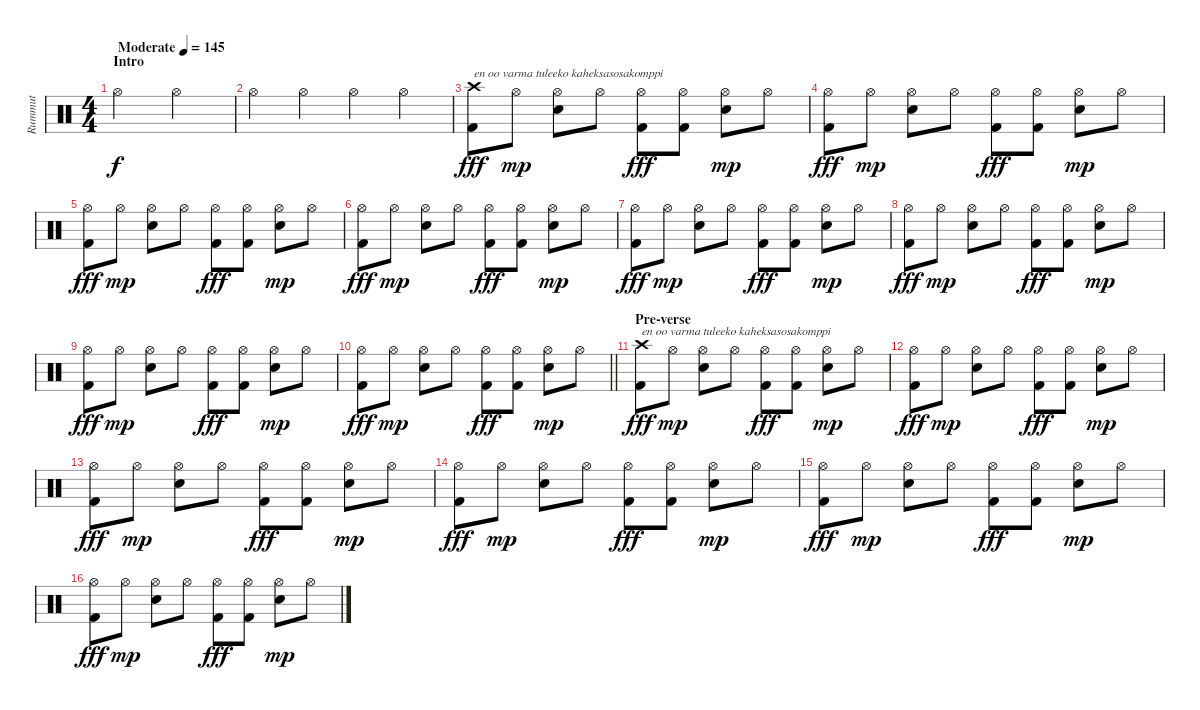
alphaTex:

\track ("Rummut" "Rummut") {instrument percussion}
\staff {score}
\articulation defaults
\ts (4 4)
\section ("" "Intro")
\tempo (145 "Moderate")
\clef neutral
\ks c "Hi-Hat (open)".2{dy f} "Hi-Hat (open)".2
|
"Hi-Hat (open)".4 "Hi-Hat (open)".4 "Hi-Hat (open)".4 "Hi-Hat (open)".4 |
("Crash high (hit)" "Kick (hit) 2").8{txt "en oo varma tuleeko kaheksasosakomppi" dy fff} "Hi-Hat (open)".8{dy mp} ("Hi-Hat (open)" "Snare (hit) 2").8 "Hi-Hat (open)".8 ("Hi-Hat (open)" "Kick (hit) 2").8{dy fff} ("Hi-Hat (open)" "Kick (hit) 2").8 ("Hi-Hat (open)" "Snare (hit) 2").8{dy mp} "Hi-Hat (open)".8 |
("Hi-Hat (open)" "Kick (hit) 2").8{dy fff} "Hi-Hat (open)".8{dy mp} ("Hi-Hat (open)" "Snare (hit) 2").8 "Hi-Hat (open)".8 ("Hi-Hat (open)" "Kick (hit) 2").8{dy fff} ("Hi-Hat (open)" "Kick (hit) 2").8 ("Hi-Hat (open)" "Snare (hit) 2").8{dy mp} "Hi-Hat (open)".8 |
("Hi-Hat (open)" "Kick (hit) 2").8{dy fff} "Hi-Hat (open)".8{dy mp} ("Hi-Hat (open)" "Snare (hit) 2").8 "Hi-Hat (open)".8 ("Hi-Hat (open)" "Kick (hit) 2").8{dy fff} ("Hi-Hat (open)" "Kick (hit) 2").8 ("Hi-Hat (open)" "Snare (hit) 2").8{dy mp} "Hi-Hat (open)".8 |
("Hi-Hat (open)" "Kick (hit) 2").8{dy fff} "Hi-Hat (open)".8{dy mp} ("Hi-Hat (open)" "Snare (hit) 2").8 "Hi-Hat (open)".8 ("Hi-Hat (open)" "Kick (hit) 2").8{dy fff} ("Hi-Hat (open)" "Kick (hit) 2").8 ("Hi-Hat (open)" "Snare (hit) 2").8{dy mp} "Hi-Hat (open)".8 |
("Hi-Hat (open)" "Kick (hit) 2").8{dy fff} "Hi-Hat (open)".8{dy mp} ("Hi-Hat (open)" "Snare (hit) 2").8 "Hi-Hat (open)".8 ("Hi-Hat (open)" "Kick (hit) 2").8{dy fff} ("Hi-Hat (open)" "Kick (hit) 2").8 ("Hi-Hat (open)" "Snare (hit) 2").8{dy mp} "Hi-Hat (open)".8 |
("Hi-Hat (open)" "Kick (hit) 2").8{dy fff} "Hi-Hat (open)".8{dy mp} ("Hi-Hat (open)" "Snare (hit) 2").8 "Hi-Hat (open)".8 ("Hi-Hat (open)" "Kick (hit) 2").8{dy fff} ("Hi-Hat (open)" "Kick (hit) 2").8 ("Hi-Hat (open)" "Snare (hit) 2").8{dy mp} "Hi-Hat (open)".8 |
("Hi-Hat (open)" "Kick (hit) 2").8{dy fff} "Hi-Hat (open)".8{dy mp} ("Hi-Hat (open)" "Snare (hit) 2").8 "Hi-Hat (open)".8 ("Hi-Hat (open)" "Kick (hit) 2").8{dy fff} ("Hi-Hat (open)" "Kick (hit) 2").8 ("Hi-Hat (open)" "Snare (hit) 2").8{dy mp} "Hi-Hat (open)".8 |
\barLineRight lightlight
("Hi-Hat (open)" "Kick (hit) 2").8{dy fff} "Hi-Hat (open)".8{dy mp} ("Hi-Hat (open)" "Snare (hit) 2").8 "Hi-Hat (open)".8 ("Hi-Hat (open)" "Kick (hit) 2").8{dy fff} ("Hi-Hat (open)" "Kick (hit) 2").8 ("Hi-Hat (open)" "Snare (hit) 2").8{dy mp} "Hi-Hat (open)".8 |
\section ("" "Pre-verse")
("Crash high (hit)" "Kick (hit) 2").8{txt "en oo varma tuleeko kaheksasosakomppi" dy fff} "Hi-Hat (open)".8{dy mp} ("Hi-Hat (open)" "Snare (hit) 2").8 "Hi-Hat (open)".8 ("Hi-Hat (open)" "Kick (hit) 2").8{dy fff} ("Hi-Hat (open)" "Kick (hit) 2").8 ("Hi-Hat (open)" "Snare (hit) 2").8{dy mp} "Hi-Hat (open)".8 |
("Hi-Hat (open)" "Kick (hit) 2").8{dy fff} "Hi-Hat (open)".8{dy mp} ("Hi-Hat (open)" "Snare (hit) 2").8 "Hi-Hat (open)".8 ("Hi-Hat (open)" "Kick (hit) 2").8{dy fff} ("Hi-Hat (open)" "Kick (hit) 2").8 ("Hi-Hat (open)" "Snare (hit) 2").8{dy mp} "Hi-Hat (open)".8 |
("Hi-Hat (open)" "Kick (hit) 2").8{dy fff} "Hi-Hat (open)".8{dy mp} ("Hi-Hat (open)" "Snare (hit) 2").8 "Hi-Hat (open)".8 ("Hi-Hat (open)" "Kick (hit) 2").8{dy fff} ("Hi-Hat (open)" "Kick (hit) 2").8 ("Hi-Hat (open)" "Snare (hit) 2").8{dy mp} "Hi-Hat (open)".8 |
("Hi-Hat (open)" "Kick (hit) 2").8{dy fff} "Hi-Hat (open)".8{dy mp} ("Hi-Hat (open)" "Snare (hit) 2").8 "Hi-Hat (open)".8 ("Hi-Hat (open)" "Kick (hit) 2").8{dy fff} ("Hi-Hat (open)" "Kick (hit) 2").8 ("Hi-Hat (open)" "Snare (hit) 2").8{dy mp} "Hi-Hat (open)".8 |
("Hi-Hat (open)" "Kick (hit) 2").8{dy fff} "Hi-Hat (open)".8{dy mp} ("Hi-Hat (open)" "Snare (hit) 2").8 "Hi-Hat (open)".8 ("Hi-Hat (open)" "Kick (hit) 2").8{dy fff} ("Hi-Hat (open)" "Kick (hit) 2").8 ("Hi-Hat (open)" "Snare (hit) 2").8{dy mp} "Hi-Hat (open)".8 |
("Hi-Hat (open)" "Kick (hit) 2").8{dy fff} "Hi-Hat (open)".8{dy mp} ("Hi-Hat (open)" "Snare (hit) 2").8 "Hi-Hat (open)".8 ("Hi-Hat (open)" "Kick (hit) 2").8{dy fff} ("Hi-Hat (open)" "Kick (hit) 2").8 ("Hi-Hat (open)" "Snare (hit) 2").8{dy mp} "Hi-Hat (open)".8
